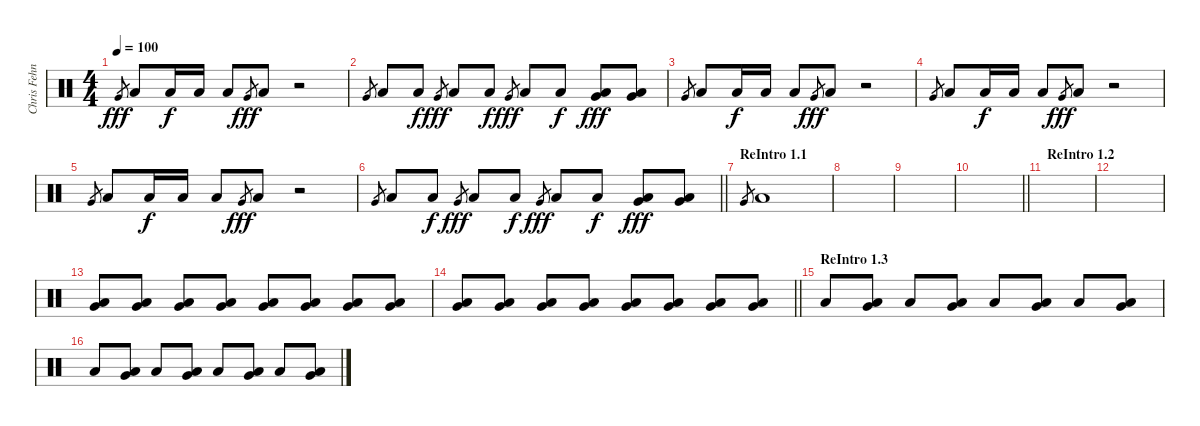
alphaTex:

\track ("Chris Fehn" "Chris Fehn") {instrument percussion}
\staff {score}
\articulation defaults
\ts (4 4)
\tempo 100
\clef neutral
\ks c "Very Low Tom (hit)".8{gr dy fff} "Low Floor Tom (hit)".8 "Low Floor Tom (hit)".16{dy f} "Low Floor Tom (hit)".16 "Low Floor Tom (hit)".8 "Very Low Tom (hit)".8{gr dy fff} "Low Floor Tom (hit)".8
r.2 |
"Very Low Tom (hit)".8{gr} "Low Floor Tom (hit)".8 "Low Floor Tom (hit)".8{dy f} "Very Low Tom (hit)".8{gr dy fff} "Low Floor Tom (hit)".8 "Low Floor Tom (hit)".8{dy f} "Very Low Tom (hit)".8{gr dy fff} "Low Floor Tom (hit)".8 "Low Floor Tom (hit)".8{dy f} ("Very Low Tom (hit)" "Low Floor Tom (hit)").8{dy fff} ("Very Low Tom (hit)" "Low Floor Tom (hit)").8 |
"Very Low Tom (hit)".8{gr} "Low Floor Tom (hit)".8 "Low Floor Tom (hit)".16{dy f} "Low Floor Tom (hit)".16 "Low Floor Tom (hit)".8 "Very Low Tom (hit)".8{gr dy fff} "Low Floor Tom (hit)".8 r.2 |
"Very Low Tom (hit)".8{gr} "Low Floor Tom (hit)".8 "Low Floor Tom (hit)".16{dy f} "Low Floor Tom (hit)".16 "Low Floor Tom (hit)".8 "Very Low Tom (hit)".8{gr dy fff} "Low Floor Tom (hit)".8 r.2 |
"Very Low Tom (hit)".8{gr} "Low Floor Tom (hit)".8 "Low Floor Tom (hit)".16{dy f} "Low Floor Tom (hit)".16 "Low Floor Tom (hit)".8 "Very Low Tom (hit)".8{gr dy fff} "Low Floor Tom (hit)".8 r.2 |
\barLineRight lightlight "Very Low Tom (hit)".8{gr} "Low Floor Tom (hit)".8 "Low Floor Tom (hit)".8{dy f} "Very Low Tom (hit)".8{gr dy fff} "Low Floor Tom (hit)".8 "Low Floor Tom (hit)".8{dy f} "Very Low Tom (hit)".8{gr dy fff} "Low Floor Tom (hit)".8 "Low Floor Tom (hit)".8{dy f}
("Very Low Tom (hit)" "Low Floor Tom (hit)").8{dy fff} ("Very Low Tom (hit)" "Low Floor Tom (hit)").8 |
\section ("" "ReIntro 1.1")
"Very Low Tom (hit)".8{gr} "Low Floor Tom (hit)".1 |
|
|
\barLineRight lightlight
|
\section ("" "ReIntro 1.2")
|
|
("Very Low Tom (hit)" "Low Floor Tom (hit)").8 ("Very Low Tom (hit)" "Low Floor Tom (hit)").8 ("Very Low Tom (hit)" "Low Floor Tom (hit)").8 ("Very Low Tom (hit)" "Low Floor Tom (hit)").8 ("Very Low Tom (hit)" "Low Floor Tom (hit)").8 ("Very Low Tom (hit)" "Low Floor Tom (hit)").8 ("Very Low Tom (hit)" "Low Floor Tom (hit)").8 ("Very Low Tom (hit)" "Low Floor Tom (hit)").8 |
\barLineRight lightlight
("Very Low Tom (hit)" "Low Floor Tom (hit)").8 ("Very Low Tom (hit)" "Low Floor Tom (hit)").8 ("Very Low Tom (hit)" "Low Floor Tom (hit)").8 ("Very Low Tom (hit)" "Low Floor Tom (hit)").8 ("Very Low Tom (hit)" "Low Floor Tom (hit)").8 ("Very Low Tom (hit)" "Low Floor Tom (hit)").8 ("Very Low Tom (hit)" "Low Floor Tom (hit)").8 ("Very Low Tom (hit)" "Low Floor Tom (hit)").8 |
\section ("" "ReIntro 1.3")
"Low Floor Tom (hit)".8 ("Very Low Tom (hit)" "Low Floor Tom (hit)").8 "Low Floor Tom (hit)".8 ("Very Low Tom (hit)" "Low Floor Tom (hit)").8 "Low Floor Tom (hit)".8 ("Very Low Tom (hit)" "Low Floor Tom (hit)").8 "Low Floor Tom (hit)".8 ("Very Low Tom (hit)" "Low Floor Tom (hit)").8 |
"Low Floor Tom (hit)".8 ("Very Low Tom (hit)" "Low Floor Tom (hit)").8 "Low Floor Tom (hit)".8 ("Very Low Tom (hit)" "Low Floor Tom (hit)").8 "Low Floor Tom (hit)".8 ("Very Low Tom (hit)" "Low Floor Tom (hit)").8 "Low Floor Tom (hit)".8 ("Very Low Tom (hit)" "Low Floor Tom (hit)").8
